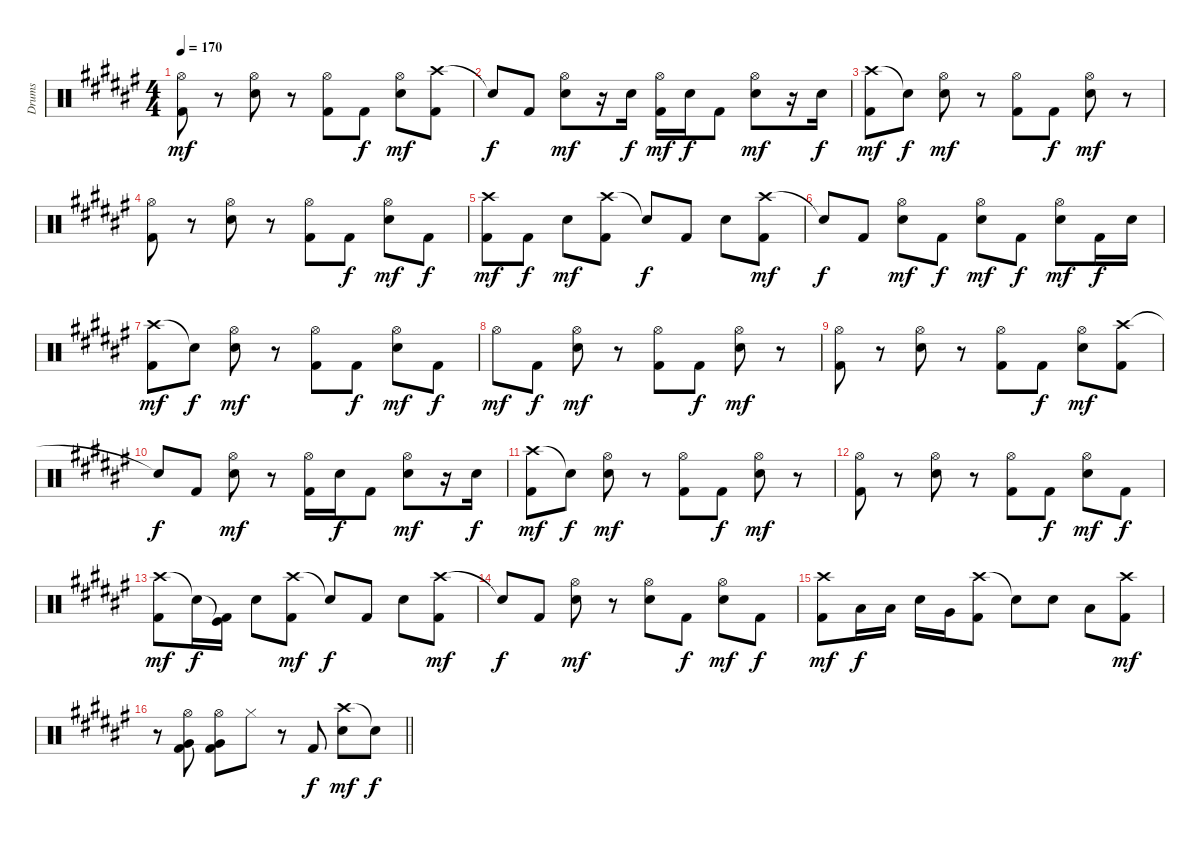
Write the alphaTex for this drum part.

\track ("Drums" "Drums") {instrument percussion}
\staff {score}
\articulation defaults
\ts (4 4)
\tempo 170
\clef neutral
\ks f#
("Hi-Hat (open)" "Kick (hit) 2").8{dy mf} r.8 ("Hi-Hat (open)" "Snare (hit) 2").8 r.8 ("Hi-Hat (open)" "Kick (hit) 2").8 "Kick (hit) 2".8{dy f} ("Hi-Hat (open)" "Snare (hit) 2").8{dy mf} ("Crash high (hit)" "Kick (hit) 2").8 |
"Snare (hit)"{t}.8{dy f} "Kick (hit) 2".8 ("Hi-Hat (open)" "Snare (hit) 2").8{dy mf} r.16 "Snare (hit) 2".16{dy f} ("Hi-Hat (open)" "Kick (hit) 2").16{dy mf} "Snare (hit) 2".16{dy f} "Kick (hit) 2".8 ("Hi-Hat (open)" "Snare (hit) 2").8{dy mf} r.16 "Snare (hit) 2".16{dy f} |
("Crash high (hit)" "Kick (hit) 2").8{dy mf} "Snare (hit)"{t}.8{dy f} ("Hi-Hat (open)" "Snare (hit) 2").8{dy mf} r.8 ("Hi-Hat (open)" "Kick (hit) 2").8 "Kick (hit) 2".8{dy f} ("Hi-Hat (open)" "Snare (hit) 2").8{dy mf} r.8 |
("Hi-Hat (open)" "Kick (hit) 2").8 r.8 ("Hi-Hat (open)" "Snare (hit) 2").8 r.8 ("Hi-Hat (open)" "Kick (hit) 2").8 "Kick (hit) 2".8{dy f} ("Hi-Hat (open)" "Snare (hit) 2").8{dy mf} "Kick (hit) 2".8{dy f} |
("Crash high (hit)" "Kick (hit) 2").8{dy mf} "Kick (hit) 2".8{dy f} "Snare (hit) 2".8{dy mf} ("Crash high (hit)" "Kick (hit) 2").8 "Snare (hit)"{t}.8{dy f} "Kick (hit) 2".8 "Snare (hit) 2".8 ("Crash high (hit)" "Kick (hit) 2").8{dy mf} |
"Snare (hit)"{t}.8{dy f} "Kick (hit) 2".8 ("Hi-Hat (open)" "Snare (hit) 2").8{dy mf} "Kick (hit) 2".8{dy f} ("Hi-Hat (open)" "Snare (hit) 2").8{dy mf} "Kick (hit) 2".8{dy f} ("Hi-Hat (open)" "Snare (hit) 2").8{dy mf} "Kick (hit) 2".16{dy f} "Snare (hit) 2".16 |
("Crash high (hit)" "Kick (hit) 2").8{dy mf} "Snare (hit)"{t}.8{dy f} ("Hi-Hat (open)" "Snare (hit) 2").8{dy mf} r.8 ("Hi-Hat (open)" "Kick (hit) 2").8 "Kick (hit) 2".8{dy f} ("Hi-Hat (open)" "Snare (hit) 2").8{dy mf} "Kick (hit) 2".8{dy f} |
"Hi-Hat (open)".8{dy mf} "Kick (hit) 2".8{dy f} ("Hi-Hat (open)" "Snare (hit) 2").8{dy mf} r.8 ("Hi-Hat (open)" "Kick (hit) 2").8 "Kick (hit) 2".8{dy f} ("Hi-Hat (open)" "Snare (hit) 2").8{dy mf} r.8 |
("Hi-Hat (open)" "Kick (hit) 2").8 r.8 ("Hi-Hat (open)" "Snare (hit) 2").8 r.8 ("Hi-Hat (open)" "Kick (hit) 2").8 "Kick (hit) 2".8{dy f} ("Hi-Hat (open)" "Snare (hit) 2").8{dy mf} ("Crash high (hit)" "Kick (hit) 2").8 |
"Snare (hit)"{t}.8{dy f} "Kick (hit) 2".8 ("Hi-Hat (open)" "Snare (hit) 2").8{dy mf} r.8 ("Hi-Hat (open)" "Kick (hit) 2").16 "Snare (hit) 2".16{dy f} "Kick (hit) 2".8 ("Hi-Hat (open)" "Snare (hit) 2").8{dy mf} r.16 "Snare (hit) 2".16{dy f} |
("Crash high (hit)" "Kick (hit) 2").8{dy mf} "Snare (hit)"{t}.8{dy f} ("Hi-Hat (open)" "Snare (hit) 2").8{dy mf} r.8 ("Hi-Hat (open)" "Kick (hit) 2").8 "Kick (hit) 2".8{dy f} ("Hi-Hat (open)" "Snare (hit) 2").8{dy mf} r.8 |
("Hi-Hat (open)" "Kick (hit) 2").8 r.8 ("Hi-Hat (open)" "Snare (hit) 2").8 r.8 ("Hi-Hat (open)" "Kick (hit) 2").8 "Kick (hit) 2".8{dy f} ("Hi-Hat (open)" "Snare (hit) 2").8{dy mf} "Kick (hit) 2".8{dy f} |
("Crash high (hit)" "Kick (hit) 2").8{dy mf} "Snare (hit)"{t}.16{dy f} ("Kick (hit)"{t} "Kick (hit) 2").16 "Snare (hit) 2".8 ("Crash high (hit)" "Kick (hit) 2").8{dy mf} "Snare (hit)"{t}.8{dy f} "Kick (hit) 2".8 "Snare (hit) 2".8 ("Crash high (hit)" "Kick (hit) 2").8{dy mf} |
"Snare (hit)"{t}.8{dy f} "Kick (hit) 2".8 ("Hi-Hat (open)" "Snare (hit) 2").8{dy mf} r.8 ("Hi-Hat (open)" "Snare (hit) 2").8 "Kick (hit) 2".8{dy f} ("Hi-Hat (open)" "Snare (hit) 2").8{dy mf} "Kick (hit) 2".8{dy f} |
("Crash high (hit)" "Kick (hit) 2").8{dy mf} "Low Tom (hit)".16{dy f} "Low Tom (hit)".16 "Snare (hit) 2".16 "Very Low Tom (hit)".16 ("Crash high (hit)" "Kick (hit) 2").8 "Snare (hit)"{t}.8 "Snare (hit) 2".8 "Low Tom (hit)".8 ("Crash high (hit)" "Kick (hit) 2").8{dy mf} |
\barLineRight lightlight
r.8 ("Hi-Hat (open)" "Very Low Tom (hit)" "Kick (hit) 2").8 ("Hi-Hat (open)" "Very Low Tom (hit)" "Kick (hit) 2").8 "Hi-Hat (closed)".8 r.8 "Kick (hit) 2".8{dy f} ("Crash high (hit)" "Snare (hit) 2").8{dy mf} "Snare (hit)"{t}.8{dy f}
